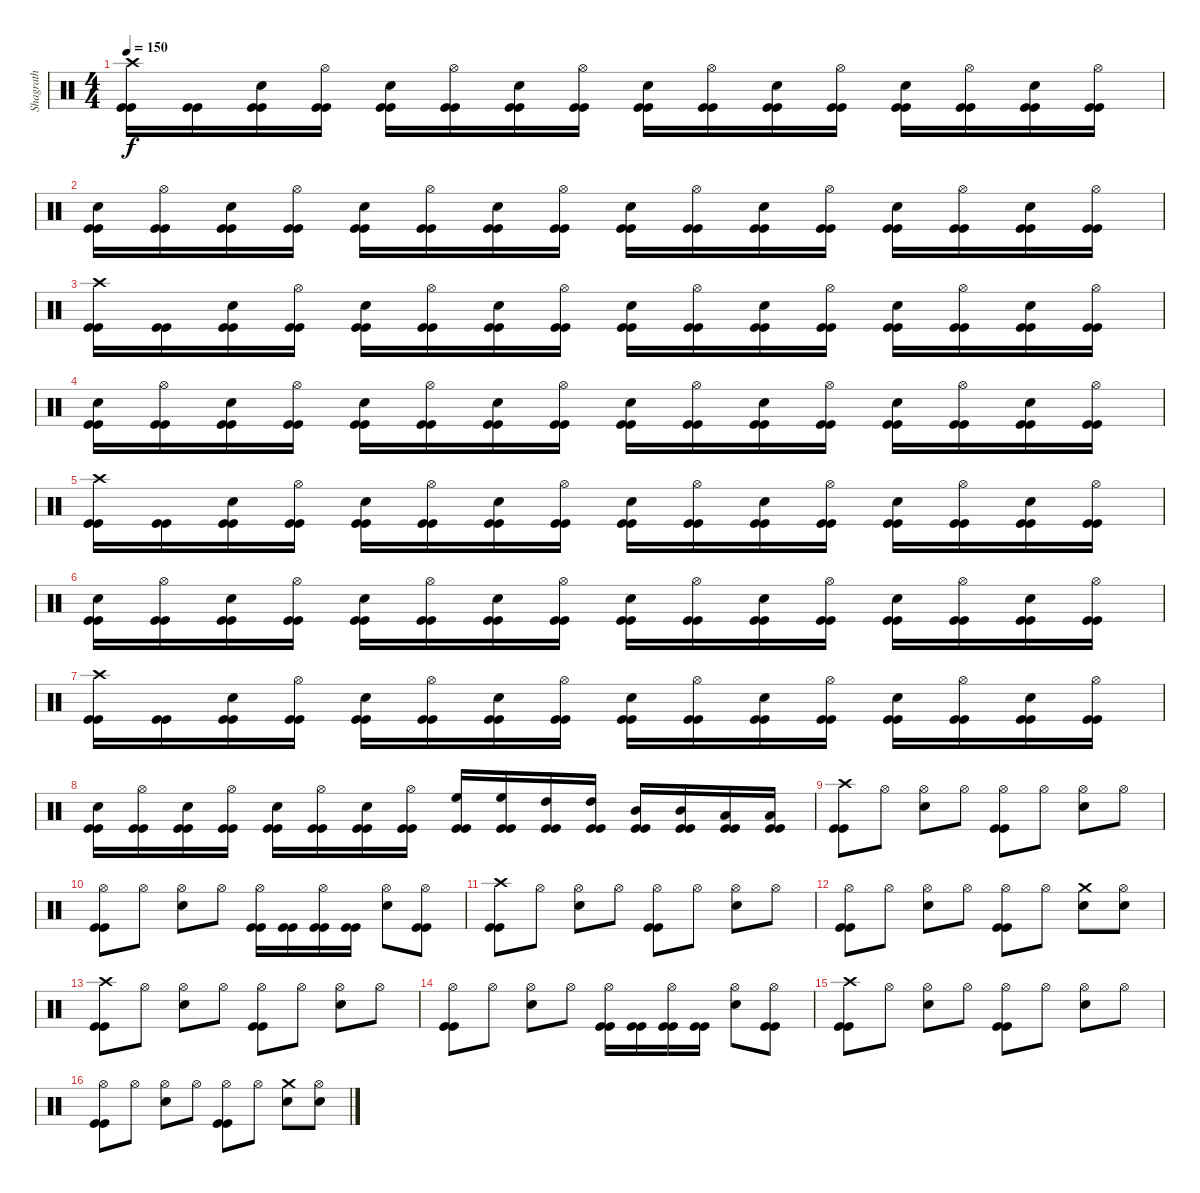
\track ("Shagrath" "Shagrath") {instrument percussion}
\staff {score}
\articulation defaults
\ts (4 4)
\tempo 150
\clef neutral
\ks c
("Kick (hit)" "Kick (hit)" "Crash high (hit)").16{dy f} ("Kick (hit)" "Kick (hit)").16 ("Kick (hit)" "Kick (hit)" "Electric Snare (hit)").16 ("Kick (hit)" "Kick (hit)" "Hi-Hat (open)").16 ("Kick (hit)" "Kick (hit)" "Electric Snare (hit)").16 ("Kick (hit)" "Kick (hit)" "Hi-Hat (open)").16 ("Kick (hit)" "Kick (hit)" "Electric Snare (hit)").16 ("Kick (hit)" "Kick (hit)" "Hi-Hat (open)").16 ("Kick (hit)" "Kick (hit)" "Electric Snare (hit)").16 ("Kick (hit)" "Kick (hit)" "Hi-Hat (open)").16 ("Kick (hit)" "Kick (hit)" "Electric Snare (hit)").16 ("Kick (hit)" "Kick (hit)" "Hi-Hat (open)").16 ("Kick (hit)" "Kick (hit)" "Electric Snare (hit)").16 ("Kick (hit)" "Kick (hit)" "Hi-Hat (open)").16 ("Kick (hit)" "Kick (hit)" "Electric Snare (hit)").16 ("Kick (hit)" "Kick (hit)" "Hi-Hat (open)").16 |
("Kick (hit)" "Kick (hit)" "Electric Snare (hit)").16 ("Kick (hit)" "Kick (hit)" "Hi-Hat (open)").16 ("Kick (hit)" "Kick (hit)" "Electric Snare (hit)").16 ("Kick (hit)" "Kick (hit)" "Hi-Hat (open)").16 ("Kick (hit)" "Kick (hit)" "Electric Snare (hit)").16 ("Kick (hit)" "Kick (hit)" "Hi-Hat (open)").16 ("Kick (hit)" "Kick (hit)" "Electric Snare (hit)").16 ("Kick (hit)" "Kick (hit)" "Hi-Hat (open)").16 ("Kick (hit)" "Kick (hit)" "Electric Snare (hit)").16 ("Kick (hit)" "Kick (hit)" "Hi-Hat (open)").16 ("Kick (hit)" "Kick (hit)" "Electric Snare (hit)").16 ("Kick (hit)" "Kick (hit)" "Hi-Hat (open)").16 ("Kick (hit)" "Kick (hit)" "Electric Snare (hit)").16 ("Kick (hit)" "Kick (hit)" "Hi-Hat (open)").16 ("Kick (hit)" "Kick (hit)" "Electric Snare (hit)").16 ("Kick (hit)" "Kick (hit)" "Hi-Hat (open)").16 |
("Kick (hit)" "Kick (hit)" "Crash high (hit)").16 ("Kick (hit)" "Kick (hit)").16 ("Kick (hit)" "Kick (hit)" "Electric Snare (hit)").16 ("Kick (hit)" "Kick (hit)" "Hi-Hat (open)").16 ("Kick (hit)" "Kick (hit)" "Electric Snare (hit)").16 ("Kick (hit)" "Kick (hit)" "Hi-Hat (open)").16 ("Kick (hit)" "Kick (hit)" "Electric Snare (hit)").16 ("Kick (hit)" "Kick (hit)" "Hi-Hat (open)").16 ("Kick (hit)" "Kick (hit)" "Electric Snare (hit)").16 ("Kick (hit)" "Kick (hit)" "Hi-Hat (open)").16 ("Kick (hit)" "Kick (hit)" "Electric Snare (hit)").16 ("Kick (hit)" "Kick (hit)" "Hi-Hat (open)").16 ("Kick (hit)" "Kick (hit)" "Electric Snare (hit)").16 ("Kick (hit)" "Kick (hit)" "Hi-Hat (open)").16 ("Kick (hit)" "Kick (hit)" "Electric Snare (hit)").16 ("Kick (hit)" "Kick (hit)" "Hi-Hat (open)").16 |
("Kick (hit)" "Kick (hit)" "Electric Snare (hit)").16 ("Kick (hit)" "Kick (hit)" "Hi-Hat (open)").16 ("Kick (hit)" "Kick (hit)" "Electric Snare (hit)").16 ("Kick (hit)" "Kick (hit)" "Hi-Hat (open)").16 ("Kick (hit)" "Kick (hit)" "Electric Snare (hit)").16 ("Kick (hit)" "Kick (hit)" "Hi-Hat (open)").16 ("Kick (hit)" "Kick (hit)" "Electric Snare (hit)").16 ("Kick (hit)" "Kick (hit)" "Hi-Hat (open)").16 ("Kick (hit)" "Kick (hit)" "Electric Snare (hit)").16 ("Kick (hit)" "Kick (hit)" "Hi-Hat (open)").16 ("Kick (hit)" "Kick (hit)" "Electric Snare (hit)").16 ("Kick (hit)" "Kick (hit)" "Hi-Hat (open)").16 ("Kick (hit)" "Kick (hit)" "Electric Snare (hit)").16 ("Kick (hit)" "Kick (hit)" "Hi-Hat (open)").16 ("Kick (hit)" "Kick (hit)" "Electric Snare (hit)").16 ("Kick (hit)" "Kick (hit)" "Hi-Hat (open)").16 |
("Kick (hit)" "Kick (hit)" "Crash high (hit)").16 ("Kick (hit)" "Kick (hit)").16 ("Kick (hit)" "Kick (hit)" "Electric Snare (hit)").16 ("Kick (hit)" "Kick (hit)" "Hi-Hat (open)").16 ("Kick (hit)" "Kick (hit)" "Electric Snare (hit)").16 ("Kick (hit)" "Kick (hit)" "Hi-Hat (open)").16 ("Kick (hit)" "Kick (hit)" "Electric Snare (hit)").16 ("Kick (hit)" "Kick (hit)" "Hi-Hat (open)").16 ("Kick (hit)" "Kick (hit)" "Electric Snare (hit)").16 ("Kick (hit)" "Kick (hit)" "Hi-Hat (open)").16 ("Kick (hit)" "Kick (hit)" "Electric Snare (hit)").16 ("Kick (hit)" "Kick (hit)" "Hi-Hat (open)").16 ("Kick (hit)" "Kick (hit)" "Electric Snare (hit)").16 ("Kick (hit)" "Kick (hit)" "Hi-Hat (open)").16 ("Kick (hit)" "Kick (hit)" "Electric Snare (hit)").16 ("Kick (hit)" "Kick (hit)" "Hi-Hat (open)").16 |
("Kick (hit)" "Kick (hit)" "Electric Snare (hit)").16 ("Kick (hit)" "Kick (hit)" "Hi-Hat (open)").16 ("Kick (hit)" "Kick (hit)" "Electric Snare (hit)").16 ("Kick (hit)" "Kick (hit)" "Hi-Hat (open)").16 ("Kick (hit)" "Kick (hit)" "Electric Snare (hit)").16 ("Kick (hit)" "Kick (hit)" "Hi-Hat (open)").16 ("Kick (hit)" "Kick (hit)" "Electric Snare (hit)").16 ("Kick (hit)" "Kick (hit)" "Hi-Hat (open)").16 ("Kick (hit)" "Kick (hit)" "Electric Snare (hit)").16 ("Kick (hit)" "Kick (hit)" "Hi-Hat (open)").16 ("Kick (hit)" "Kick (hit)" "Electric Snare (hit)").16 ("Kick (hit)" "Kick (hit)" "Hi-Hat (open)").16 ("Kick (hit)" "Kick (hit)" "Electric Snare (hit)").16 ("Kick (hit)" "Kick (hit)" "Hi-Hat (open)").16 ("Kick (hit)" "Kick (hit)" "Electric Snare (hit)").16 ("Kick (hit)" "Kick (hit)" "Hi-Hat (open)").16 |
("Kick (hit)" "Kick (hit)" "Crash high (hit)").16 ("Kick (hit)" "Kick (hit)").16 ("Kick (hit)" "Kick (hit)" "Electric Snare (hit)").16 ("Kick (hit)" "Kick (hit)" "Hi-Hat (open)").16 ("Kick (hit)" "Kick (hit)" "Electric Snare (hit)").16 ("Kick (hit)" "Kick (hit)" "Hi-Hat (open)").16 ("Kick (hit)" "Kick (hit)" "Electric Snare (hit)").16 ("Kick (hit)" "Kick (hit)" "Hi-Hat (open)").16 ("Kick (hit)" "Kick (hit)" "Electric Snare (hit)").16 ("Kick (hit)" "Kick (hit)" "Hi-Hat (open)").16 ("Kick (hit)" "Kick (hit)" "Electric Snare (hit)").16 ("Kick (hit)" "Kick (hit)" "Hi-Hat (open)").16 ("Kick (hit)" "Kick (hit)" "Electric Snare (hit)").16 ("Kick (hit)" "Kick (hit)" "Hi-Hat (open)").16 ("Kick (hit)" "Kick (hit)" "Electric Snare (hit)").16 ("Kick (hit)" "Kick (hit)" "Hi-Hat (open)").16 |
("Kick (hit)" "Kick (hit)" "Electric Snare (hit)").16 ("Kick (hit)" "Kick (hit)" "Hi-Hat (open)").16 ("Kick (hit)" "Kick (hit)" "Electric Snare (hit)").16 ("Kick (hit)" "Kick (hit)" "Hi-Hat (open)").16 ("Kick (hit)" "Kick (hit)" "Electric Snare (hit)").16 ("Kick (hit)" "Kick (hit)" "Hi-Hat (open)").16 ("Kick (hit)" "Kick (hit)" "Electric Snare (hit)").16 ("Kick (hit)" "Kick (hit)" "Hi-Hat (open)").16 ("Kick (hit)" "Kick (hit)" "High Floor Tom (hit)").16 ("Kick (hit)" "Kick (hit)" "High Floor Tom (hit)").16 ("Kick (hit)" "Kick (hit)" "High Tom (hit)").16 ("Kick (hit)" "Kick (hit)" "High Tom (hit)").16 ("Kick (hit)" "Kick (hit)" "Mid Tom (hit)").16 ("Kick (hit)" "Kick (hit)" "Mid Tom (hit)").16 ("Kick (hit)" "Kick (hit)" "Low Tom (hit)").16 ("Kick (hit)" "Kick (hit)" "Low Tom (hit)").16 |
("Kick (hit)" "Kick (hit)" "Crash high (hit)").8 "Hi-Hat (open)".8 ("Electric Snare (hit)" "Hi-Hat (open)").8 "Hi-Hat (open)".8 ("Kick (hit)" "Kick (hit)" "Hi-Hat (open)").8 "Hi-Hat (open)".8 ("Electric Snare (hit)" "Hi-Hat (open)").8 "Hi-Hat (open)".8 |
("Kick (hit)" "Kick (hit)" "Hi-Hat (open)").8 "Hi-Hat (open)".8 ("Electric Snare (hit)" "Hi-Hat (open)").8 "Hi-Hat (open)".8 ("Kick (hit)" "Kick (hit)" "Hi-Hat (open)").16 ("Kick (hit)" "Kick (hit)").16 ("Kick (hit)" "Kick (hit)" "Hi-Hat (open)").16 ("Kick (hit)" "Kick (hit)").16 ("Electric Snare (hit)" "Hi-Hat (open)").8 ("Kick (hit)" "Kick (hit)" "Hi-Hat (open)").8 |
("Kick (hit)" "Kick (hit)" "Crash high (hit)").8 "Hi-Hat (open)".8 ("Electric Snare (hit)" "Hi-Hat (open)").8 "Hi-Hat (open)".8 ("Kick (hit)" "Kick (hit)" "Hi-Hat (open)").8 "Hi-Hat (open)".8 ("Electric Snare (hit)" "Hi-Hat (open)").8 "Hi-Hat (open)".8 |
("Kick (hit)" "Kick (hit)" "Hi-Hat (open)").8 "Hi-Hat (open)".8 ("Electric Snare (hit)" "Hi-Hat (open)").8 "Hi-Hat (open)".8 ("Kick (hit)" "Kick (hit)" "Hi-Hat (open)").8 "Hi-Hat (open)".8 ("Electric Snare (hit)" "Crash medium (hit)").8 ("Electric Snare (hit)" "Hi-Hat (open)").8 |
("Kick (hit)" "Kick (hit)" "Crash high (hit)").8 "Hi-Hat (open)".8 ("Electric Snare (hit)" "Hi-Hat (open)").8 "Hi-Hat (open)".8 ("Kick (hit)" "Kick (hit)" "Hi-Hat (open)").8 "Hi-Hat (open)".8 ("Electric Snare (hit)" "Hi-Hat (open)").8 "Hi-Hat (open)".8 |
("Kick (hit)" "Kick (hit)" "Hi-Hat (open)").8 "Hi-Hat (open)".8 ("Electric Snare (hit)" "Hi-Hat (open)").8 "Hi-Hat (open)".8 ("Kick (hit)" "Kick (hit)" "Hi-Hat (open)").16 ("Kick (hit)" "Kick (hit)").16 ("Kick (hit)" "Kick (hit)" "Hi-Hat (open)").16 ("Kick (hit)" "Kick (hit)").16 ("Electric Snare (hit)" "Hi-Hat (open)").8 ("Kick (hit)" "Kick (hit)" "Hi-Hat (open)").8 |
("Kick (hit)" "Kick (hit)" "Crash high (hit)").8 "Hi-Hat (open)".8 ("Electric Snare (hit)" "Hi-Hat (open)").8 "Hi-Hat (open)".8 ("Kick (hit)" "Kick (hit)" "Hi-Hat (open)").8 "Hi-Hat (open)".8 ("Electric Snare (hit)" "Hi-Hat (open)").8 "Hi-Hat (open)".8 |
("Kick (hit)" "Kick (hit)" "Hi-Hat (open)").8 "Hi-Hat (open)".8 ("Electric Snare (hit)" "Hi-Hat (open)").8 "Hi-Hat (open)".8 ("Kick (hit)" "Kick (hit)" "Hi-Hat (open)").8 "Hi-Hat (open)".8 ("Electric Snare (hit)" "Crash medium (hit)").8 ("Electric Snare (hit)" "Hi-Hat (open)").8
